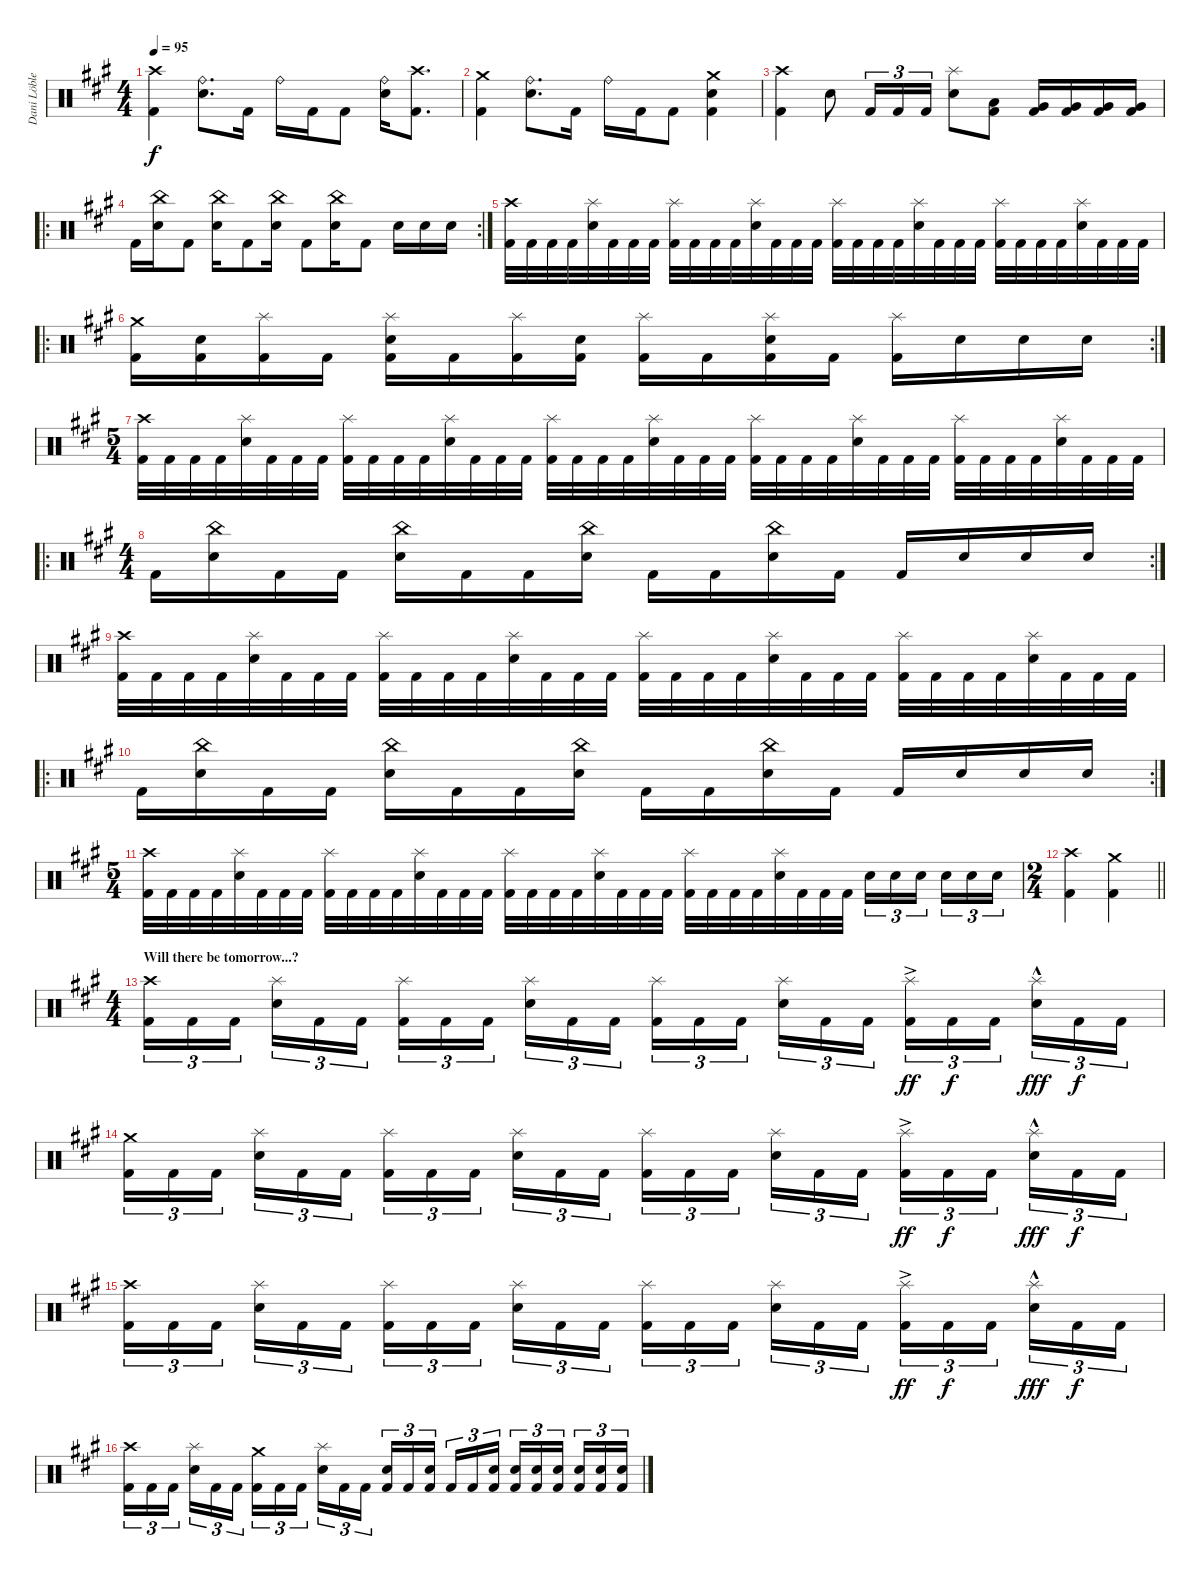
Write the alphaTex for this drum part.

\track ("Dani Löble" "Dani Löble") {instrument percussion}
\staff {score}
\articulation defaults
\ts (4 4)
\tempo 95
\clef neutral
\ks f#minor
("Crash high (hit)" "Kick (hit) 2").4{dy f} ("Ride (bell)" "Snare (hit) 2").8{d} "Kick (hit) 2".16 "Ride (bell)".16 "Kick (hit) 2".16 "Kick (hit) 2".8 ("Ride (bell)" "Snare (hit) 2").16 ("Crash high (hit)" "Kick (hit) 2").8{d} |
("Crash medium (hit)" "Kick (hit) 2").4 ("Ride (bell)" "Snare (hit) 2").8{d} "Kick (hit) 2".16 "Ride (bell)".16 "Kick (hit) 2".16 "Kick (hit) 2".8 ("Crash medium (hit)" "Snare (hit) 2" "Kick (hit) 2").4 |
("Crash high (hit)" "Kick (hit) 2").4 "Snare (hit) 2".8 "Kick (hit) 2".16{tu (3 2)} "Kick (hit) 2".16{tu (3 2)} "Kick (hit) 2".16{tu (3 2)} ("Splash (hit)" "Snare (hit) 2").8 ("Low Floor Tom (hit)" "Kick (hit) 2").8 ("Very Low Tom (hit)" "Kick (hit) 2").16 ("Very Low Tom (hit)" "Kick (hit) 2").16 ("Very Low Tom (hit)" "Kick (hit) 2").16 ("Very Low Tom (hit)" "Kick (hit) 2").16 |
\ro
\rc 2 "Kick (hit) 2".16
("China (hit)" "Snare (hit) 2").16 "Kick (hit) 2".8 ("China (hit)" "Snare (hit) 2").16 "Kick (hit) 2".8 ("China (hit)" "Snare (hit) 2").16 "Kick (hit) 2".8 ("China (hit)" "Snare (hit) 2").16 "Kick (hit) 2".8 "Snare (hit) 2".16 "Snare (hit) 2".16 "Snare (hit) 2".16 |
("Crash high (hit)" "Kick (hit) 2").32 "Kick (hit) 2".32 "Kick (hit) 2".32 "Kick (hit) 2".32 ("Splash (hit)" "Snare (hit) 2").32 "Kick (hit) 2".32 "Kick (hit) 2".32 "Kick (hit) 2".32 ("Splash (hit)" "Kick (hit) 2").32 "Kick (hit) 2".32 "Kick (hit) 2".32 "Kick (hit) 2".32 ("Splash (hit)" "Snare (hit) 2").32 "Kick (hit) 2".32 "Kick (hit) 2".32 "Kick (hit) 2".32 ("Splash (hit)" "Kick (hit) 2").32 "Kick (hit) 2".32 "Kick (hit) 2".32 "Kick (hit) 2".32 ("Splash (hit)" "Snare (hit) 2").32 "Kick (hit) 2".32 "Kick (hit) 2".32 "Kick (hit) 2".32 ("Splash (hit)" "Kick (hit) 2").32 "Kick (hit) 2".32 "Kick (hit) 2".32 "Kick (hit) 2".32 ("Splash (hit)" "Snare (hit) 2").32 "Kick (hit) 2".32 "Kick (hit) 2".32 "Kick (hit) 2".32 |
\ro
\rc 2
("Crash medium (hit)" "Kick (hit) 2").16 ("Snare (hit) 2" "Kick (hit) 2").16 ("Splash (hit)" "Kick (hit) 2").16 "Kick (hit) 2".16 ("Splash (hit)" "Snare (hit) 2" "Kick (hit) 2").16 "Kick (hit) 2".16 ("Splash (hit)" "Kick (hit) 2").16 ("Snare (hit) 2" "Kick (hit) 2").16 ("Splash (hit)" "Kick (hit) 2").16 "Kick (hit) 2".16 ("Splash (hit)" "Snare (hit) 2" "Kick (hit) 2").16 "Kick (hit) 2".16 ("Splash (hit)" "Kick (hit) 2").16 "Snare (hit) 2".16 "Snare (hit) 2".16 "Snare (hit) 2".16 |
\ts (5 4)
("Crash high (hit)" "Kick (hit) 2").32 "Kick (hit) 2".32 "Kick (hit) 2".32 "Kick (hit) 2".32 ("Splash (hit)" "Snare (hit) 2").32 "Kick (hit) 2".32 "Kick (hit) 2".32 "Kick (hit) 2".32 ("Splash (hit)" "Kick (hit) 2").32 "Kick (hit) 2".32 "Kick (hit) 2".32 "Kick (hit) 2".32 ("Splash (hit)" "Snare (hit) 2").32 "Kick (hit) 2".32 "Kick (hit) 2".32 "Kick (hit) 2".32 ("Splash (hit)" "Kick (hit) 2").32 "Kick (hit) 2".32 "Kick (hit) 2".32 "Kick (hit) 2".32 ("Splash (hit)" "Snare (hit) 2").32 "Kick (hit) 2".32 "Kick (hit) 2".32 "Kick (hit) 2".32 ("Splash (hit)" "Kick (hit) 2").32 "Kick (hit) 2".32 "Kick (hit) 2".32 "Kick (hit) 2".32 ("Splash (hit)" "Snare (hit) 2").32 "Kick (hit) 2".32 "Kick (hit) 2".32 "Kick (hit) 2".32 ("Splash (hit)" "Kick (hit) 2").32 "Kick (hit) 2".32 "Kick (hit) 2".32 "Kick (hit) 2".32 ("Splash (hit)" "Snare (hit) 2").32 "Kick (hit) 2".32 "Kick (hit) 2".32 "Kick (hit) 2".32 |
\ro
\rc 2
\ts (4 4)
"Kick (hit) 2".16 ("China (hit)" "Snare (hit) 2").16 "Kick (hit) 2".16 "Kick (hit) 2".16 ("China (hit)" "Snare (hit) 2").16 "Kick (hit) 2".16 "Kick (hit) 2".16 ("China (hit)" "Snare (hit) 2").16 "Kick (hit) 2".16 "Kick (hit) 2".16 ("China (hit)" "Snare (hit) 2").16 "Kick (hit) 2".16 "Kick (hit) 2".16 "Snare (hit) 2".16 "Snare (hit) 2".16 "Snare (hit) 2".16 |
("Crash high (hit)" "Kick (hit) 2").32 "Kick (hit) 2".32 "Kick (hit) 2".32 "Kick (hit) 2".32 ("Splash (hit)" "Snare (hit) 2").32 "Kick (hit) 2".32 "Kick (hit) 2".32 "Kick (hit) 2".32 ("Splash (hit)" "Kick (hit) 2").32 "Kick (hit) 2".32 "Kick (hit) 2".32 "Kick (hit) 2".32 ("Splash (hit)" "Snare (hit) 2").32 "Kick (hit) 2".32 "Kick (hit) 2".32 "Kick (hit) 2".32 ("Splash (hit)" "Kick (hit) 2").32 "Kick (hit) 2".32 "Kick (hit) 2".32 "Kick (hit) 2".32 ("Splash (hit)" "Snare (hit) 2").32 "Kick (hit) 2".32 "Kick (hit) 2".32 "Kick (hit) 2".32 ("Splash (hit)" "Kick (hit) 2").32 "Kick (hit) 2".32 "Kick (hit) 2".32 "Kick (hit) 2".32 ("Splash (hit)" "Snare (hit) 2").32 "Kick (hit) 2".32 "Kick (hit) 2".32 "Kick (hit) 2".32 |
\ro
\rc 2 "Kick (hit) 2".16
("China (hit)" "Snare (hit) 2").16 "Kick (hit) 2".16 "Kick (hit) 2".16 ("China (hit)" "Snare (hit) 2").16 "Kick (hit) 2".16 "Kick (hit) 2".16 ("China (hit)" "Snare (hit) 2").16 "Kick (hit) 2".16 "Kick (hit) 2".16 ("China (hit)" "Snare (hit) 2").16 "Kick (hit) 2".16 "Kick (hit) 2".16 "Snare (hit) 2".16 "Snare (hit) 2".16 "Snare (hit) 2".16 |
\ts (5 4)
("Crash high (hit)" "Kick (hit) 2").32 "Kick (hit) 2".32 "Kick (hit) 2".32 "Kick (hit) 2".32 ("Splash (hit)" "Snare (hit) 2").32 "Kick (hit) 2".32 "Kick (hit) 2".32 "Kick (hit) 2".32 ("Splash (hit)" "Kick (hit) 2").32 "Kick (hit) 2".32 "Kick (hit) 2".32 "Kick (hit) 2".32 ("Splash (hit)" "Snare (hit) 2").32 "Kick (hit) 2".32 "Kick (hit) 2".32 "Kick (hit) 2".32 ("Splash (hit)" "Kick (hit) 2").32 "Kick (hit) 2".32 "Kick (hit) 2".32 "Kick (hit) 2".32 ("Splash (hit)" "Snare (hit) 2").32 "Kick (hit) 2".32 "Kick (hit) 2".32 "Kick (hit) 2".32 ("Splash (hit)" "Kick (hit) 2").32 "Kick (hit) 2".32 "Kick (hit) 2".32 "Kick (hit) 2".32 ("Splash (hit)" "Snare (hit) 2").32 "Kick (hit) 2".32 "Kick (hit) 2".32 "Kick (hit) 2".32 "Snare (hit) 2".16{tu (3 2)} "Snare (hit) 2".16{tu (3 2)} "Snare (hit) 2".16{tu (3 2) beam splitsecondary} "Snare (hit) 2".16{tu (3 2)} "Snare (hit) 2".16{tu (3 2)} "Snare (hit) 2".16{tu (3 2)} |
\ts (2 4)
\barLineRight lightlight
("Crash high (hit)" "Kick (hit) 2").4 ("Crash medium (hit)" "Kick (hit) 2").4 |
\ts (4 4)
\section ("" "Will there be tomorrow...?")
("Crash high (hit)" "Kick (hit) 2").16{tu (3 2)} "Kick (hit) 2".16{tu (3 2)} "Kick (hit) 2".16{tu (3 2) beam splitsecondary} ("Splash (hit)" "Snare (hit) 2").16{tu (3 2)} "Kick (hit) 2".16{tu (3 2)} "Kick (hit) 2".16{tu (3 2)} ("Splash (hit)" "Kick (hit) 2").16{tu (3 2)} "Kick (hit) 2".16{tu (3 2)} "Kick (hit) 2".16{tu (3 2) beam splitsecondary} ("Splash (hit)" "Snare (hit) 2").16{tu (3 2)} "Kick (hit) 2".16{tu (3 2)} "Kick (hit) 2".16{tu (3 2)} ("Splash (hit)" "Kick (hit) 2").16{tu (3 2)} "Kick (hit) 2".16{tu (3 2)} "Kick (hit) 2".16{tu (3 2) beam splitsecondary} ("Splash (hit)" "Snare (hit) 2").16{tu (3 2)} "Kick (hit) 2".16{tu (3 2)} "Kick (hit) 2".16{tu (3 2)} ("Splash (hit)"{ac} "Kick (hit) 2").16{tu (3 2) dy ff} "Kick (hit) 2".16{tu (3 2) dy f} "Kick (hit) 2".16{tu (3 2) beam splitsecondary} ("Splash (hit)"{hac} "Snare (hit) 2").16{tu (3 2) dy fff} "Kick (hit) 2".16{tu (3 2) dy f} "Kick (hit) 2".16{tu (3 2)} |
("Crash medium (hit)" "Kick (hit) 2").16{tu (3 2)} "Kick (hit) 2".16{tu (3 2)} "Kick (hit) 2".16{tu (3 2) beam splitsecondary} ("Splash (hit)" "Snare (hit) 2").16{tu (3 2)} "Kick (hit) 2".16{tu (3 2)} "Kick (hit) 2".16{tu (3 2)} ("Splash (hit)" "Kick (hit) 2").16{tu (3 2)} "Kick (hit) 2".16{tu (3 2)} "Kick (hit) 2".16{tu (3 2) beam splitsecondary} ("Splash (hit)" "Snare (hit) 2").16{tu (3 2)} "Kick (hit) 2".16{tu (3 2)} "Kick (hit) 2".16{tu (3 2)} ("Splash (hit)" "Kick (hit) 2").16{tu (3 2)} "Kick (hit) 2".16{tu (3 2)} "Kick (hit) 2".16{tu (3 2) beam splitsecondary} ("Splash (hit)" "Snare (hit) 2").16{tu (3 2)} "Kick (hit) 2".16{tu (3 2)} "Kick (hit) 2".16{tu (3 2)} ("Splash (hit)"{ac} "Kick (hit) 2").16{tu (3 2) dy ff} "Kick (hit) 2".16{tu (3 2) dy f} "Kick (hit) 2".16{tu (3 2) beam splitsecondary} ("Splash (hit)"{hac} "Snare (hit) 2").16{tu (3 2) dy fff} "Kick (hit) 2".16{tu (3 2) dy f} "Kick (hit) 2".16{tu (3 2)} |
("Crash high (hit)" "Kick (hit) 2").16{tu (3 2)} "Kick (hit) 2".16{tu (3 2)} "Kick (hit) 2".16{tu (3 2) beam splitsecondary} ("Splash (hit)" "Snare (hit) 2").16{tu (3 2)} "Kick (hit) 2".16{tu (3 2)} "Kick (hit) 2".16{tu (3 2)} ("Splash (hit)" "Kick (hit) 2").16{tu (3 2)} "Kick (hit) 2".16{tu (3 2)} "Kick (hit) 2".16{tu (3 2) beam splitsecondary} ("Splash (hit)" "Snare (hit) 2").16{tu (3 2)} "Kick (hit) 2".16{tu (3 2)} "Kick (hit) 2".16{tu (3 2)} ("Splash (hit)" "Kick (hit) 2").16{tu (3 2)} "Kick (hit) 2".16{tu (3 2)} "Kick (hit) 2".16{tu (3 2) beam splitsecondary} ("Splash (hit)" "Snare (hit) 2").16{tu (3 2)} "Kick (hit) 2".16{tu (3 2)} "Kick (hit) 2".16{tu (3 2)} ("Splash (hit)"{ac} "Kick (hit) 2").16{tu (3 2) dy ff} "Kick (hit) 2".16{tu (3 2) dy f} "Kick (hit) 2".16{tu (3 2) beam splitsecondary} ("Splash (hit)"{hac} "Snare (hit) 2").16{tu (3 2) dy fff} "Kick (hit) 2".16{tu (3 2) dy f} "Kick (hit) 2".16{tu (3 2)} |
("Crash high (hit)" "Kick (hit) 2").16{tu (3 2)} "Kick (hit) 2".16{tu (3 2)} "Kick (hit) 2".16{tu (3 2) beam splitsecondary} ("Splash (hit)" "Snare (hit) 2").16{tu (3 2)} "Kick (hit) 2".16{tu (3 2)} "Kick (hit) 2".16{tu (3 2)} ("Crash medium (hit)" "Kick (hit) 2").16{tu (3 2)} "Kick (hit) 2".16{tu (3 2)} "Kick (hit) 2".16{tu (3 2) beam splitsecondary} ("Splash (hit)" "Snare (hit) 2").16{tu (3 2)} "Kick (hit) 2".16{tu (3 2)} "Kick (hit) 2".16{tu (3 2)} ("Snare (hit) 2" "Kick (hit) 2").16{tu (3 2)} "Kick (hit) 2".16{tu (3 2)} ("Snare (hit) 2" "Kick (hit) 2").16{tu (3 2) beam splitsecondary} "Kick (hit) 2".16{tu (3 2)} "Kick (hit) 2".16{tu (3 2)} ("Snare (hit) 2" "Kick (hit) 2").16{tu (3 2)} ("Snare (hit) 2" "Kick (hit) 2").16{tu (3 2)} ("Snare (hit) 2" "Kick (hit) 2").16{tu (3 2)} ("Snare (hit) 2" "Kick (hit) 2").16{tu (3 2) beam splitsecondary} ("Snare (hit) 2" "Kick (hit) 2").16{tu (3 2)} ("Snare (hit) 2" "Kick (hit) 2").16{tu (3 2)} ("Snare (hit) 2" "Kick (hit) 2").16{tu (3 2)}
